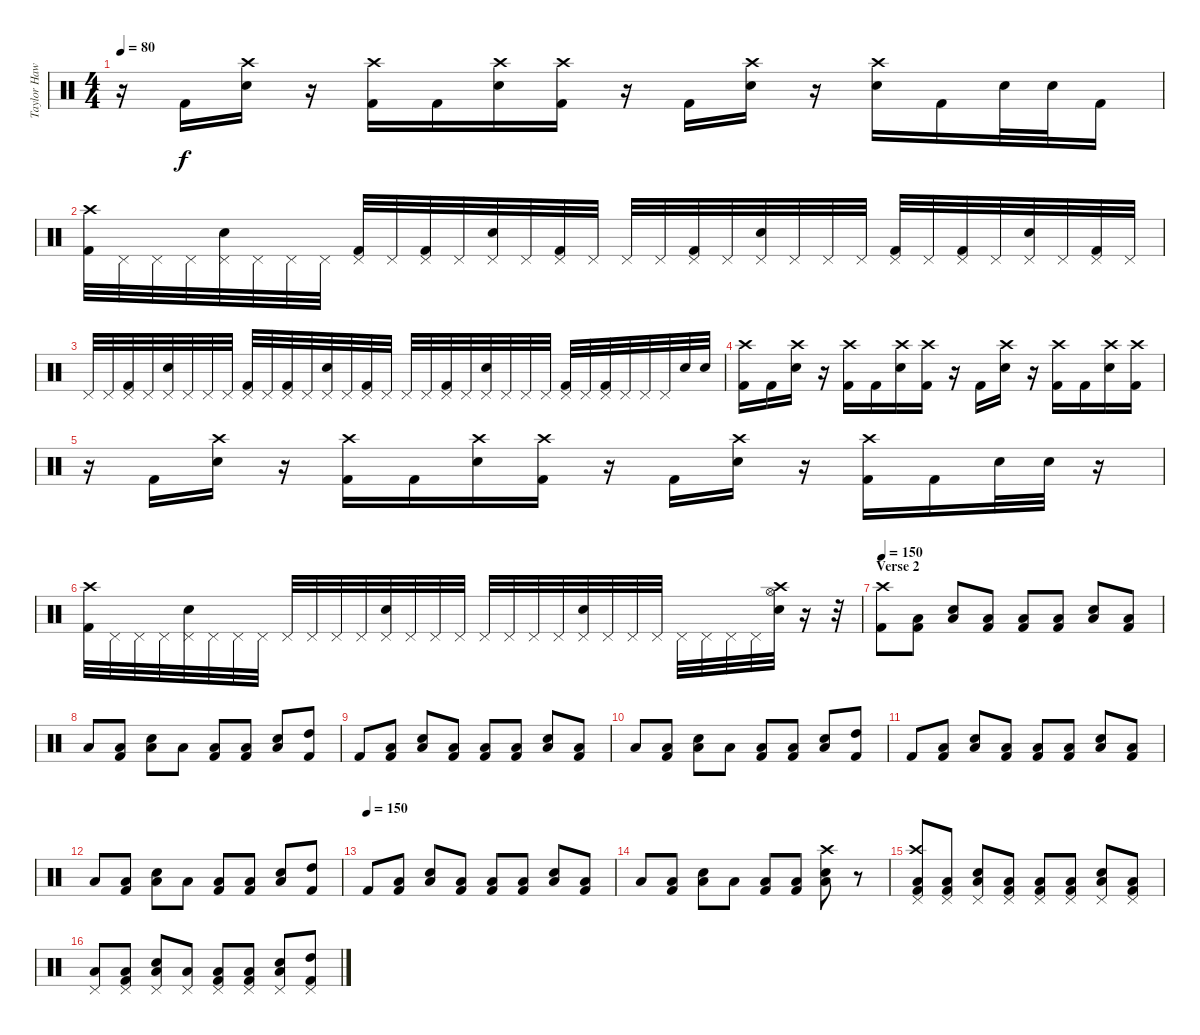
\track ("Taylor Hawkins" "Taylor Haw") {instrument percussion}
\staff {score}
\articulation defaults
\ts (4 4)
\tempo 80
\clef neutral
\ks c
r.16{dy f} "Kick (hit) 2".16 ("Crash high (hit)" "Snare (hit) 2").16 r.16 ("Crash high (hit)" "Kick (hit) 2").16 "Kick (hit) 2".16 ("Crash high (hit)" "Snare (hit) 2").16 ("Crash high (hit)" "Kick (hit) 2").16 r.16 "Kick (hit) 2".16 ("Crash high (hit)" "Snare (hit) 2").16 r.16 ("Crash high (hit)" "Snare (hit) 2").16 "Kick (hit) 2".16 "Snare (hit) 2".32 "Snare (hit) 2".32 "Kick (hit) 2".16 |
("Crash high (hit)" "Kick (hit) 2").32 "Pedal Hi-Hat (hit)".32 "Pedal Hi-Hat (hit)".32 "Pedal Hi-Hat (hit)".32 ("Pedal Hi-Hat (hit)" "Snare (hit) 2").32 "Pedal Hi-Hat (hit)".32 "Pedal Hi-Hat (hit)".32 "Pedal Hi-Hat (hit)".32 ("Pedal Hi-Hat (hit)" "Kick (hit) 2").32 "Pedal Hi-Hat (hit)".32 ("Pedal Hi-Hat (hit)" "Kick (hit) 2").32 "Pedal Hi-Hat (hit)".32 ("Pedal Hi-Hat (hit)" "Snare (hit) 2").32 "Pedal Hi-Hat (hit)".32 ("Pedal Hi-Hat (hit)" "Kick (hit) 2").32 "Pedal Hi-Hat (hit)".32 "Pedal Hi-Hat (hit)".32 "Pedal Hi-Hat (hit)".32 ("Pedal Hi-Hat (hit)" "Kick (hit) 2").32 "Pedal Hi-Hat (hit)".32 ("Pedal Hi-Hat (hit)" "Snare (hit) 2").32 "Pedal Hi-Hat (hit)".32 "Pedal Hi-Hat (hit)".32 "Pedal Hi-Hat (hit)".32 ("Pedal Hi-Hat (hit)" "Kick (hit) 2").32 "Pedal Hi-Hat (hit)".32 ("Pedal Hi-Hat (hit)" "Kick (hit) 2").32 "Pedal Hi-Hat (hit)".32 ("Pedal Hi-Hat (hit)" "Snare (hit) 2").32 "Pedal Hi-Hat (hit)".32 ("Pedal Hi-Hat (hit)" "Kick (hit) 2").32 "Pedal Hi-Hat (hit)".32 |
"Pedal Hi-Hat (hit)".32 "Pedal Hi-Hat (hit)".32 ("Pedal Hi-Hat (hit)" "Kick (hit) 2").32 "Pedal Hi-Hat (hit)".32 ("Pedal Hi-Hat (hit)" "Snare (hit) 2").32 "Pedal Hi-Hat (hit)".32 "Pedal Hi-Hat (hit)".32 "Pedal Hi-Hat (hit)".32 ("Pedal Hi-Hat (hit)" "Kick (hit) 2").32 "Pedal Hi-Hat (hit)".32 ("Pedal Hi-Hat (hit)" "Kick (hit) 2").32 "Pedal Hi-Hat (hit)".32 ("Pedal Hi-Hat (hit)" "Snare (hit) 2").32 "Pedal Hi-Hat (hit)".32 ("Pedal Hi-Hat (hit)" "Kick (hit) 2").32 "Pedal Hi-Hat (hit)".32 "Pedal Hi-Hat (hit)".32 "Pedal Hi-Hat (hit)".32 ("Pedal Hi-Hat (hit)" "Kick (hit) 2").32 "Pedal Hi-Hat (hit)".32 ("Pedal Hi-Hat (hit)" "Snare (hit) 2").32 "Pedal Hi-Hat (hit)".32 "Pedal Hi-Hat (hit)".32 "Pedal Hi-Hat (hit)".32 ("Pedal Hi-Hat (hit)" "Kick (hit) 2").32 "Pedal Hi-Hat (hit)".32 ("Pedal Hi-Hat (hit)" "Kick (hit) 2").32 "Pedal Hi-Hat (hit)".32 "Pedal Hi-Hat (hit)".32 "Pedal Hi-Hat (hit)".32 "Snare (hit) 2".32 "Snare (hit) 2".32 |
("Crash high (hit)" "Kick (hit) 2").16 "Kick (hit) 2".16 ("Crash high (hit)" "Snare (hit) 2").16 r.16 ("Crash high (hit)" "Kick (hit) 2").16 "Kick (hit) 2".16 ("Crash high (hit)" "Snare (hit) 2").16 ("Crash high (hit)" "Kick (hit) 2").16 r.16 "Kick (hit) 2".16 ("Crash high (hit)" "Snare (hit) 2").16 r.16 ("Crash high (hit)" "Kick (hit) 2").16 "Kick (hit) 2".16 ("Crash high (hit)" "Snare (hit) 2").16 ("Crash high (hit)" "Kick (hit) 2").16 |
r.16 "Kick (hit) 2".16 ("Crash high (hit)" "Snare (hit) 2").16 r.16 ("Crash high (hit)" "Kick (hit) 2").16 "Kick (hit) 2".16 ("Crash high (hit)" "Snare (hit) 2").16 ("Crash high (hit)" "Kick (hit) 2").16 r.16 "Kick (hit) 2".16 ("Crash high (hit)" "Snare (hit) 2").16 r.16 ("Crash high (hit)" "Kick (hit) 2").16 "Kick (hit) 2".16 "Snare (hit) 2".32 "Snare (hit) 2".32 r.16 |
("Crash high (hit)" "Kick (hit) 2").32 "Pedal Hi-Hat (hit)".32 "Pedal Hi-Hat (hit)".32 "Pedal Hi-Hat (hit)".32 ("Pedal Hi-Hat (hit)" "Snare (hit) 2").32 "Pedal Hi-Hat (hit)".32 "Pedal Hi-Hat (hit)".32 "Pedal Hi-Hat (hit)".32 "Pedal Hi-Hat (hit)".32 "Pedal Hi-Hat (hit)".32 "Pedal Hi-Hat (hit)".32 "Pedal Hi-Hat (hit)".32 ("Pedal Hi-Hat (hit)" "Snare (hit) 2").32 "Pedal Hi-Hat (hit)".32 "Pedal Hi-Hat (hit)".32 "Pedal Hi-Hat (hit)".32 "Pedal Hi-Hat (hit)".32 "Pedal Hi-Hat (hit)".32 "Pedal Hi-Hat (hit)".32 "Pedal Hi-Hat (hit)".32 ("Pedal Hi-Hat (hit)" "Snare (hit) 2").32 "Pedal Hi-Hat (hit)".32 "Pedal Hi-Hat (hit)".32 "Pedal Hi-Hat (hit)".32 "Pedal Hi-Hat (hit)".32 "Pedal Hi-Hat (hit)".32 "Pedal Hi-Hat (hit)".32 "Pedal Hi-Hat (hit)".32 ("Crash high (hit)" "Hi-Hat (open)" "Snare (hit) 2").32 r.16 r.32 |
\section ("" "Verse 2")
\tempo 150
("Crash high (hit)" "Kick (hit) 2").8 ("Low Floor Tom (hit)" "Kick (hit) 2").8 ("Low Floor Tom (hit)" "Snare (hit) 2").8 ("Low Floor Tom (hit)" "Kick (hit) 2").8 ("Low Floor Tom (hit)" "Kick (hit) 2").8 ("Low Floor Tom (hit)" "Kick (hit) 2").8 ("Low Floor Tom (hit)" "Snare (hit) 2").8 ("Low Floor Tom (hit)" "Kick (hit) 2").8 |
"Low Floor Tom (hit)".8 ("Low Floor Tom (hit)" "Kick (hit) 2").8 ("Low Floor Tom (hit)" "Snare (hit) 2").8 "Low Floor Tom (hit)".8 ("Low Floor Tom (hit)" "Kick (hit) 2").8 ("Low Floor Tom (hit)" "Kick (hit) 2").8 ("Low Floor Tom (hit)" "Snare (hit) 2").8 ("High Tom (hit)" "Kick (hit) 2").8 |
"Kick (hit) 2".8 ("Low Floor Tom (hit)" "Kick (hit) 2").8 ("Low Floor Tom (hit)" "Snare (hit) 2").8 ("Low Floor Tom (hit)" "Kick (hit) 2").8 ("Low Floor Tom (hit)" "Kick (hit) 2").8 ("Low Floor Tom (hit)" "Kick (hit) 2").8 ("Low Floor Tom (hit)" "Snare (hit) 2").8 ("Low Floor Tom (hit)" "Kick (hit) 2").8 |
"Low Floor Tom (hit)".8 ("Low Floor Tom (hit)" "Kick (hit) 2").8 ("Low Floor Tom (hit)" "Snare (hit) 2").8 "Low Floor Tom (hit)".8 ("Low Floor Tom (hit)" "Kick (hit) 2").8 ("Low Floor Tom (hit)" "Kick (hit) 2").8 ("Low Floor Tom (hit)" "Snare (hit) 2").8 ("High Tom (hit)" "Kick (hit) 2").8 |
"Kick (hit) 2".8 ("Low Floor Tom (hit)" "Kick (hit) 2").8 ("Low Floor Tom (hit)" "Snare (hit) 2").8 ("Low Floor Tom (hit)" "Kick (hit) 2").8 ("Low Floor Tom (hit)" "Kick (hit) 2").8 ("Low Floor Tom (hit)" "Kick (hit) 2").8 ("Low Floor Tom (hit)" "Snare (hit) 2").8 ("Low Floor Tom (hit)" "Kick (hit) 2").8 |
"Low Floor Tom (hit)".8 ("Low Floor Tom (hit)" "Kick (hit) 2").8 ("Low Floor Tom (hit)" "Snare (hit) 2").8 "Low Floor Tom (hit)".8 ("Low Floor Tom (hit)" "Kick (hit) 2").8 ("Low Floor Tom (hit)" "Kick (hit) 2").8 ("Low Floor Tom (hit)" "Snare (hit) 2").8 ("High Tom (hit)" "Kick (hit) 2").8 |
\tempo (150)
"Kick (hit) 2".8 ("Low Floor Tom (hit)" "Kick (hit) 2").8 ("Low Floor Tom (hit)" "Snare (hit) 2").8 ("Low Floor Tom (hit)" "Kick (hit) 2").8 ("Low Floor Tom (hit)" "Kick (hit) 2").8 ("Low Floor Tom (hit)" "Kick (hit) 2").8 ("Low Floor Tom (hit)" "Snare (hit) 2").8 ("Low Floor Tom (hit)" "Kick (hit) 2").8 |
"Low Floor Tom (hit)".8 ("Low Floor Tom (hit)" "Kick (hit) 2").8 ("Low Floor Tom (hit)" "Snare (hit) 2").8 "Low Floor Tom (hit)".8 ("Low Floor Tom (hit)" "Kick (hit) 2").8 ("Low Floor Tom (hit)" "Kick (hit) 2").8 ("Crash high (hit)" "Low Floor Tom (hit)" "Snare (hit) 2").8 r.8 |
("Crash high (hit)" "Pedal Hi-Hat (hit)" "Low Floor Tom (hit)" "Kick (hit) 2").8 ("Pedal Hi-Hat (hit)" "Low Floor Tom (hit)" "Kick (hit) 2").8 ("Pedal Hi-Hat (hit)" "Low Floor Tom (hit)" "Snare (hit) 2").8 ("Pedal Hi-Hat (hit)" "Low Floor Tom (hit)" "Kick (hit) 2").8 ("Pedal Hi-Hat (hit)" "Low Floor Tom (hit)" "Kick (hit) 2").8 ("Pedal Hi-Hat (hit)" "Low Floor Tom (hit)" "Kick (hit) 2").8 ("Pedal Hi-Hat (hit)" "Low Floor Tom (hit)" "Snare (hit) 2").8 ("Pedal Hi-Hat (hit)" "Low Floor Tom (hit)" "Kick (hit) 2").8 |
("Pedal Hi-Hat (hit)" "Low Floor Tom (hit)").8 ("Pedal Hi-Hat (hit)" "Low Floor Tom (hit)" "Kick (hit) 2").8 ("Pedal Hi-Hat (hit)" "Low Floor Tom (hit)" "Snare (hit) 2").8 ("Pedal Hi-Hat (hit)" "Low Floor Tom (hit)").8 ("Pedal Hi-Hat (hit)" "Low Floor Tom (hit)" "Kick (hit) 2").8 ("Pedal Hi-Hat (hit)" "Low Floor Tom (hit)" "Kick (hit) 2").8 ("Pedal Hi-Hat (hit)" "Low Floor Tom (hit)" "Snare (hit) 2").8 ("Pedal Hi-Hat (hit)" "High Tom (hit)" "Kick (hit) 2").8
